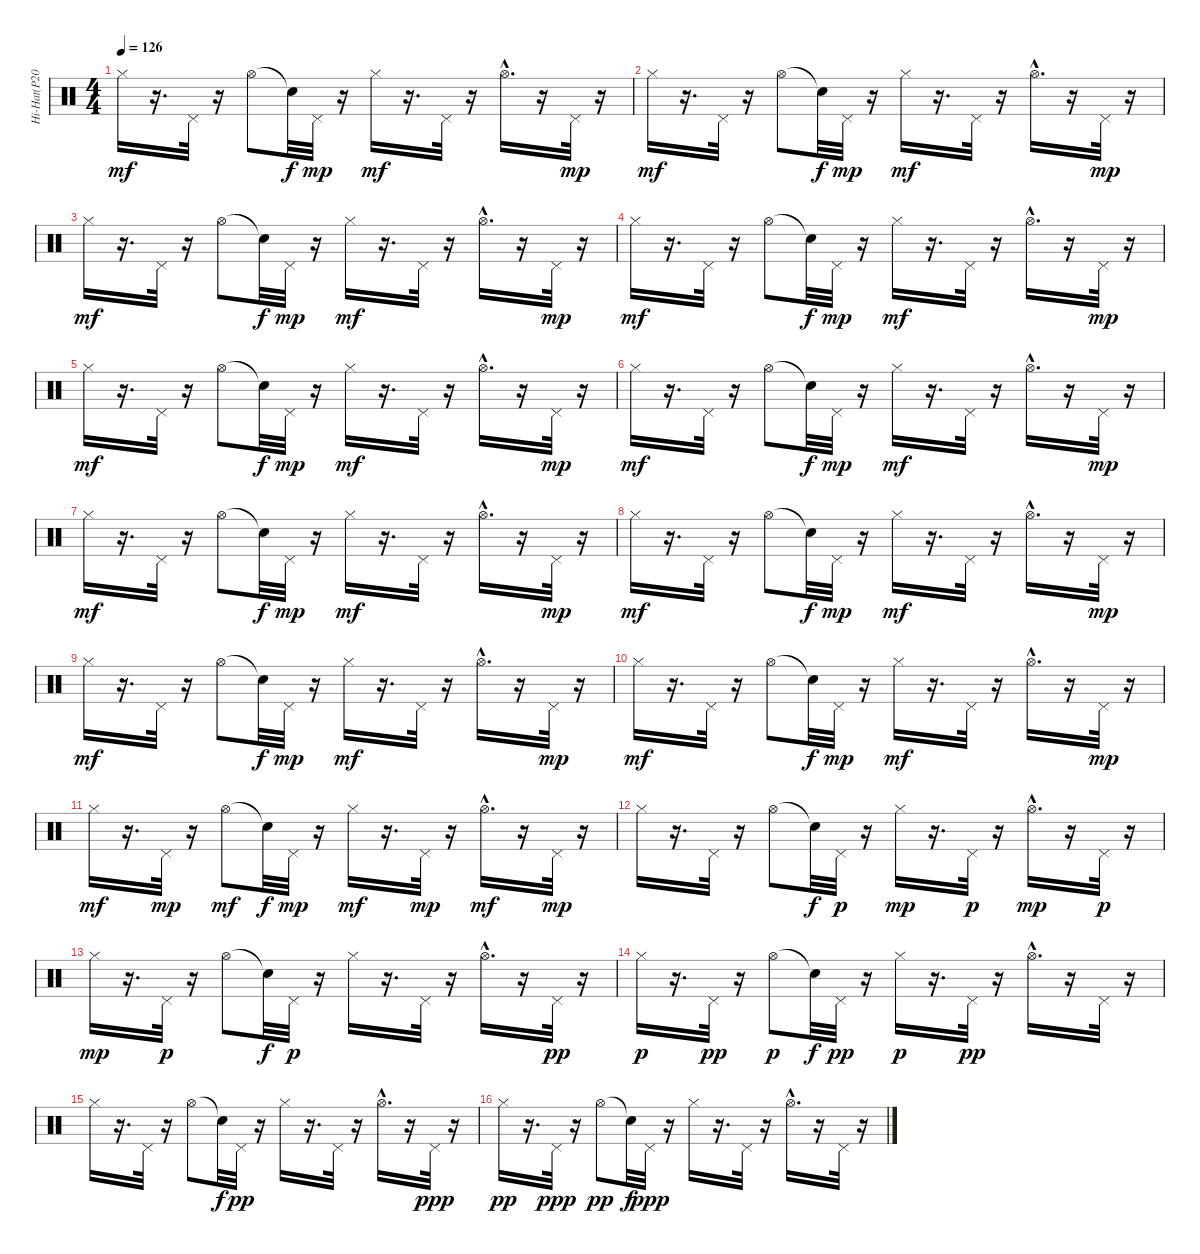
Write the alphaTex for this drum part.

\track ("Hi-Hat(P201)" "Hi-Hat(P20") {instrument percussion}
\staff {score}
\articulation defaults
\ts (4 4)
\tempo 126
\clef neutral
\ks c "Hi-Hat (closed)".16{dy mf}
r.16{d} "Pedal Hi-Hat (hit)".32 r.16 "Hi-Hat (open)".8 "Snare (hit)"{t}.32{dy f} "Pedal Hi-Hat (hit)".32{dy mp} r.16 "Hi-Hat (closed)".16{dy mf} r.16{d} "Pedal Hi-Hat (hit)".32 r.16 "Hi-Hat (open)"{hac}.16{d} r.16 "Pedal Hi-Hat (hit)".32{dy mp} r.16 |
"Hi-Hat (closed)".16{dy mf} r.16{d} "Pedal Hi-Hat (hit)".32 r.16 "Hi-Hat (open)".8 "Snare (hit)"{t}.32{dy f} "Pedal Hi-Hat (hit)".32{dy mp} r.16 "Hi-Hat (closed)".16{dy mf} r.16{d} "Pedal Hi-Hat (hit)".32 r.16 "Hi-Hat (open)"{hac}.16{d} r.16 "Pedal Hi-Hat (hit)".32{dy mp} r.16 |
"Hi-Hat (closed)".16{dy mf} r.16{d} "Pedal Hi-Hat (hit)".32 r.16 "Hi-Hat (open)".8 "Snare (hit)"{t}.32{dy f} "Pedal Hi-Hat (hit)".32{dy mp} r.16 "Hi-Hat (closed)".16{dy mf} r.16{d} "Pedal Hi-Hat (hit)".32 r.16 "Hi-Hat (open)"{hac}.16{d} r.16 "Pedal Hi-Hat (hit)".32{dy mp} r.16 |
"Hi-Hat (closed)".16{dy mf} r.16{d} "Pedal Hi-Hat (hit)".32 r.16 "Hi-Hat (open)".8 "Snare (hit)"{t}.32{dy f} "Pedal Hi-Hat (hit)".32{dy mp} r.16 "Hi-Hat (closed)".16{dy mf} r.16{d} "Pedal Hi-Hat (hit)".32 r.16 "Hi-Hat (open)"{hac}.16{d} r.16 "Pedal Hi-Hat (hit)".32{dy mp} r.16 |
"Hi-Hat (closed)".16{dy mf} r.16{d} "Pedal Hi-Hat (hit)".32 r.16 "Hi-Hat (open)".8 "Snare (hit)"{t}.32{dy f} "Pedal Hi-Hat (hit)".32{dy mp} r.16 "Hi-Hat (closed)".16{dy mf} r.16{d} "Pedal Hi-Hat (hit)".32 r.16 "Hi-Hat (open)"{hac}.16{d} r.16 "Pedal Hi-Hat (hit)".32{dy mp} r.16 |
"Hi-Hat (closed)".16{dy mf} r.16{d} "Pedal Hi-Hat (hit)".32 r.16 "Hi-Hat (open)".8 "Snare (hit)"{t}.32{dy f} "Pedal Hi-Hat (hit)".32{dy mp} r.16 "Hi-Hat (closed)".16{dy mf} r.16{d} "Pedal Hi-Hat (hit)".32 r.16 "Hi-Hat (open)"{hac}.16{d} r.16 "Pedal Hi-Hat (hit)".32{dy mp} r.16 |
"Hi-Hat (closed)".16{dy mf} r.16{d} "Pedal Hi-Hat (hit)".32 r.16 "Hi-Hat (open)".8 "Snare (hit)"{t}.32{dy f} "Pedal Hi-Hat (hit)".32{dy mp} r.16 "Hi-Hat (closed)".16{dy mf} r.16{d} "Pedal Hi-Hat (hit)".32 r.16 "Hi-Hat (open)"{hac}.16{d} r.16 "Pedal Hi-Hat (hit)".32{dy mp} r.16 |
"Hi-Hat (closed)".16{dy mf} r.16{d} "Pedal Hi-Hat (hit)".32 r.16 "Hi-Hat (open)".8 "Snare (hit)"{t}.32{dy f} "Pedal Hi-Hat (hit)".32{dy mp} r.16 "Hi-Hat (closed)".16{dy mf} r.16{d} "Pedal Hi-Hat (hit)".32 r.16 "Hi-Hat (open)"{hac}.16{d} r.16 "Pedal Hi-Hat (hit)".32{dy mp} r.16 |
"Hi-Hat (closed)".16{dy mf} r.16{d} "Pedal Hi-Hat (hit)".32 r.16 "Hi-Hat (open)".8 "Snare (hit)"{t}.32{dy f} "Pedal Hi-Hat (hit)".32{dy mp} r.16 "Hi-Hat (closed)".16{dy mf} r.16{d} "Pedal Hi-Hat (hit)".32 r.16 "Hi-Hat (open)"{hac}.16{d} r.16 "Pedal Hi-Hat (hit)".32{dy mp} r.16 |
"Hi-Hat (closed)".16{dy mf} r.16{d} "Pedal Hi-Hat (hit)".32 r.16 "Hi-Hat (open)".8 "Snare (hit)"{t}.32{dy f} "Pedal Hi-Hat (hit)".32{dy mp} r.16 "Hi-Hat (closed)".16{dy mf} r.16{d} "Pedal Hi-Hat (hit)".32 r.16 "Hi-Hat (open)"{hac}.16{d} r.16 "Pedal Hi-Hat (hit)".32{dy mp} r.16 |
"Hi-Hat (closed)".16{dy mf} r.16{d} "Pedal Hi-Hat (hit)".32{dy mp} r.16 "Hi-Hat (open)".8{dy mf} "Snare (hit)"{t}.32{dy f} "Pedal Hi-Hat (hit)".32{dy mp} r.16 "Hi-Hat (closed)".16{dy mf} r.16{d} "Pedal Hi-Hat (hit)".32{dy mp} r.16 "Hi-Hat (open)"{hac}.16{d dy mf} r.16 "Pedal Hi-Hat (hit)".32{dy mp} r.16 |
"Hi-Hat (closed)".16 r.16{d} "Pedal Hi-Hat (hit)".32 r.16 "Hi-Hat (open)".8 "Snare (hit)"{t}.32{dy f} "Pedal Hi-Hat (hit)".32{dy p} r.16 "Hi-Hat (closed)".16{dy mp} r.16{d} "Pedal Hi-Hat (hit)".32{dy p} r.16 "Hi-Hat (open)"{hac}.16{d dy mp} r.16 "Pedal Hi-Hat (hit)".32{dy p} r.16 |
"Hi-Hat (closed)".16{dy mp} r.16{d} "Pedal Hi-Hat (hit)".32{dy p} r.16 "Hi-Hat (open)".8 "Snare (hit)"{t}.32{dy f} "Pedal Hi-Hat (hit)".32{dy p} r.16 "Hi-Hat (closed)".16 r.16{d} "Pedal Hi-Hat (hit)".32 r.16 "Hi-Hat (open)"{hac}.16{d} r.16 "Pedal Hi-Hat (hit)".32{dy pp} r.16 |
"Hi-Hat (closed)".16{dy p} r.16{d} "Pedal Hi-Hat (hit)".32{dy pp} r.16 "Hi-Hat (open)".8{dy p} "Snare (hit)"{t}.32{dy f} "Pedal Hi-Hat (hit)".32{dy pp} r.16 "Hi-Hat (closed)".16{dy p} r.16{d} "Pedal Hi-Hat (hit)".32{dy pp} r.16 "Hi-Hat (open)"{hac}.16{d} r.16 "Pedal Hi-Hat (hit)".32 r.16 |
"Hi-Hat (closed)".16 r.16{d} "Pedal Hi-Hat (hit)".32 r.16 "Hi-Hat (open)".8 "Snare (hit)"{t}.32{dy f} "Pedal Hi-Hat (hit)".32{dy pp} r.16 "Hi-Hat (closed)".16 r.16{d} "Pedal Hi-Hat (hit)".32 r.16 "Hi-Hat (open)"{hac}.16{d} r.16 "Pedal Hi-Hat (hit)".32{dy ppp} r.16 |
"Hi-Hat (closed)".16{dy pp} r.16{d} "Pedal Hi-Hat (hit)".32{dy ppp} r.16 "Hi-Hat (open)".8{dy pp} "Snare (hit)"{t}.32{dy f} "Pedal Hi-Hat (hit)".32{dy ppp} r.16 "Hi-Hat (closed)".16 r.16{d} "Pedal Hi-Hat (hit)".32 r.16 "Hi-Hat (open)"{hac}.16{d} r.16 "Pedal Hi-Hat (hit)".32 r.16
